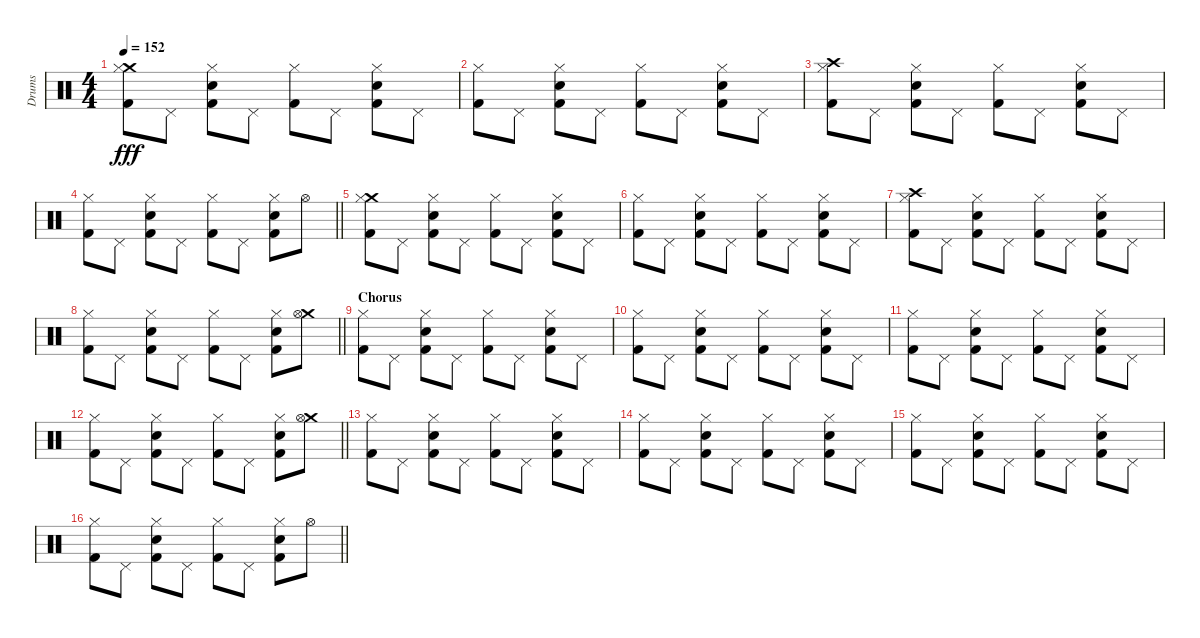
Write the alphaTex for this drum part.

\track ("Drums" "Drums") {instrument percussion}
\staff {score}
\articulation defaults
\ts (4 4)
\tempo 152
\clef neutral
\ks c
("Crash medium (hit)" "Hi-Hat (closed)" "Kick (hit) 2").8{dy fff} "Pedal Hi-Hat (hit)".8 ("Hi-Hat (closed)" "Electric Snare (hit)" "Kick (hit) 2").8 "Pedal Hi-Hat (hit)".8 ("Hi-Hat (closed)" "Kick (hit) 2").8 "Pedal Hi-Hat (hit)".8 ("Hi-Hat (closed)" "Electric Snare (hit)" "Kick (hit) 2").8 "Pedal Hi-Hat (hit)".8 |
("Hi-Hat (closed)" "Kick (hit) 2").8 "Pedal Hi-Hat (hit)".8 ("Hi-Hat (closed)" "Electric Snare (hit)" "Kick (hit) 2").8 "Pedal Hi-Hat (hit)".8 ("Hi-Hat (closed)" "Kick (hit) 2").8 "Pedal Hi-Hat (hit)".8 ("Hi-Hat (closed)" "Electric Snare (hit)" "Kick (hit) 2").8 "Pedal Hi-Hat (hit)".8 |
("Crash high (hit)" "Hi-Hat (closed)" "Kick (hit) 2").8 "Pedal Hi-Hat (hit)".8 ("Hi-Hat (closed)" "Electric Snare (hit)" "Kick (hit) 2").8 "Pedal Hi-Hat (hit)".8 ("Hi-Hat (closed)" "Kick (hit) 2").8 "Pedal Hi-Hat (hit)".8 ("Hi-Hat (closed)" "Electric Snare (hit)" "Kick (hit) 2").8 "Pedal Hi-Hat (hit)".8 |
\barLineRight lightlight
("Hi-Hat (closed)" "Kick (hit) 2").8 "Pedal Hi-Hat (hit)".8 ("Hi-Hat (closed)" "Electric Snare (hit)" "Kick (hit) 2").8 "Pedal Hi-Hat (hit)".8 ("Hi-Hat (closed)" "Kick (hit) 2").8 "Pedal Hi-Hat (hit)".8 ("Hi-Hat (closed)" "Electric Snare (hit)" "Kick (hit) 2").8 "Hi-Hat (open)".8 |
("Crash medium (hit)" "Hi-Hat (closed)" "Kick (hit) 2").8 "Pedal Hi-Hat (hit)".8 ("Hi-Hat (closed)" "Electric Snare (hit)" "Kick (hit) 2").8 "Pedal Hi-Hat (hit)".8 ("Hi-Hat (closed)" "Kick (hit) 2").8 "Pedal Hi-Hat (hit)".8 ("Hi-Hat (closed)" "Electric Snare (hit)" "Kick (hit) 2").8 "Pedal Hi-Hat (hit)".8 |
("Hi-Hat (closed)" "Kick (hit) 2").8 "Pedal Hi-Hat (hit)".8 ("Hi-Hat (closed)" "Electric Snare (hit)" "Kick (hit) 2").8 "Pedal Hi-Hat (hit)".8 ("Hi-Hat (closed)" "Kick (hit) 2").8 "Pedal Hi-Hat (hit)".8 ("Hi-Hat (closed)" "Electric Snare (hit)" "Kick (hit) 2").8 "Pedal Hi-Hat (hit)".8 |
("Crash high (hit)" "Hi-Hat (closed)" "Kick (hit) 2").8 "Pedal Hi-Hat (hit)".8 ("Hi-Hat (closed)" "Electric Snare (hit)" "Kick (hit) 2").8 "Pedal Hi-Hat (hit)".8 ("Hi-Hat (closed)" "Kick (hit) 2").8 "Pedal Hi-Hat (hit)".8 ("Hi-Hat (closed)" "Electric Snare (hit)" "Kick (hit) 2").8 "Pedal Hi-Hat (hit)".8 |
\barLineRight lightlight
("Hi-Hat (closed)" "Kick (hit) 2").8 "Pedal Hi-Hat (hit)".8 ("Hi-Hat (closed)" "Electric Snare (hit)" "Kick (hit) 2").8 "Pedal Hi-Hat (hit)".8 ("Hi-Hat (closed)" "Kick (hit) 2").8 "Pedal Hi-Hat (hit)".8 ("Hi-Hat (closed)" "Electric Snare (hit)" "Kick (hit) 2").8 ("Crash medium (hit)" "Hi-Hat (open)").8 |
\section ("" "Chorus")
("Hi-Hat (closed)" "Kick (hit) 2").8 "Pedal Hi-Hat (hit)".8 ("Hi-Hat (closed)" "Electric Snare (hit)" "Kick (hit) 2").8 "Pedal Hi-Hat (hit)".8 ("Hi-Hat (closed)" "Kick (hit) 2").8 "Pedal Hi-Hat (hit)".8 ("Hi-Hat (closed)" "Electric Snare (hit)" "Kick (hit) 2").8 "Pedal Hi-Hat (hit)".8 |
("Hi-Hat (closed)" "Kick (hit) 2").8 "Pedal Hi-Hat (hit)".8 ("Hi-Hat (closed)" "Electric Snare (hit)" "Kick (hit) 2").8 "Pedal Hi-Hat (hit)".8 ("Hi-Hat (closed)" "Kick (hit) 2").8 "Pedal Hi-Hat (hit)".8 ("Hi-Hat (closed)" "Electric Snare (hit)" "Kick (hit) 2").8 "Pedal Hi-Hat (hit)".8 |
("Hi-Hat (closed)" "Kick (hit) 2").8 "Pedal Hi-Hat (hit)".8 ("Hi-Hat (closed)" "Electric Snare (hit)" "Kick (hit) 2").8 "Pedal Hi-Hat (hit)".8 ("Hi-Hat (closed)" "Kick (hit) 2").8 "Pedal Hi-Hat (hit)".8 ("Hi-Hat (closed)" "Electric Snare (hit)" "Kick (hit) 2").8 "Pedal Hi-Hat (hit)".8 |
\barLineRight lightlight
("Hi-Hat (closed)" "Kick (hit) 2").8 "Pedal Hi-Hat (hit)".8 ("Hi-Hat (closed)" "Electric Snare (hit)" "Kick (hit) 2").8 "Pedal Hi-Hat (hit)".8 ("Hi-Hat (closed)" "Kick (hit) 2").8 "Pedal Hi-Hat (hit)".8 ("Hi-Hat (closed)" "Electric Snare (hit)" "Kick (hit) 2").8 ("Crash medium (hit)" "Hi-Hat (open)").8 |
("Hi-Hat (closed)" "Kick (hit) 2").8 "Pedal Hi-Hat (hit)".8 ("Hi-Hat (closed)" "Electric Snare (hit)" "Kick (hit) 2").8 "Pedal Hi-Hat (hit)".8 ("Hi-Hat (closed)" "Kick (hit) 2").8 "Pedal Hi-Hat (hit)".8 ("Hi-Hat (closed)" "Electric Snare (hit)" "Kick (hit) 2").8 "Pedal Hi-Hat (hit)".8 |
("Hi-Hat (closed)" "Kick (hit) 2").8 "Pedal Hi-Hat (hit)".8 ("Hi-Hat (closed)" "Electric Snare (hit)" "Kick (hit) 2").8 "Pedal Hi-Hat (hit)".8 ("Hi-Hat (closed)" "Kick (hit) 2").8 "Pedal Hi-Hat (hit)".8 ("Hi-Hat (closed)" "Electric Snare (hit)" "Kick (hit) 2").8 "Pedal Hi-Hat (hit)".8 |
("Hi-Hat (closed)" "Kick (hit) 2").8 "Pedal Hi-Hat (hit)".8 ("Hi-Hat (closed)" "Electric Snare (hit)" "Kick (hit) 2").8 "Pedal Hi-Hat (hit)".8 ("Hi-Hat (closed)" "Kick (hit) 2").8 "Pedal Hi-Hat (hit)".8 ("Hi-Hat (closed)" "Electric Snare (hit)" "Kick (hit) 2").8 "Pedal Hi-Hat (hit)".8 |
\barLineRight lightlight
("Hi-Hat (closed)" "Kick (hit) 2").8 "Pedal Hi-Hat (hit)".8 ("Hi-Hat (closed)" "Electric Snare (hit)" "Kick (hit) 2").8 "Pedal Hi-Hat (hit)".8 ("Hi-Hat (closed)" "Kick (hit) 2").8 "Pedal Hi-Hat (hit)".8 ("Hi-Hat (closed)" "Electric Snare (hit)" "Kick (hit) 2").8 "Hi-Hat (open)".8
